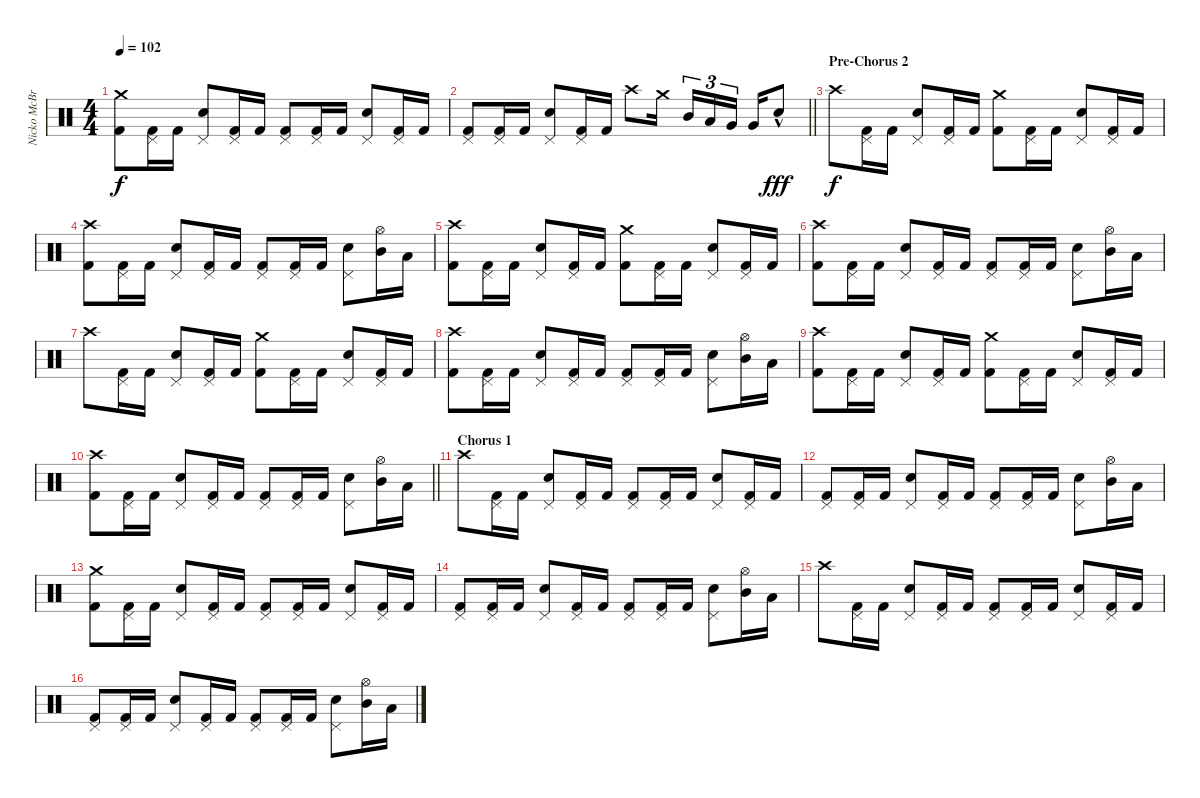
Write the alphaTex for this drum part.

\track ("Nicko McBrain" "Nicko McBr") {instrument percussion}
\staff {score}
\articulation defaults
\ts (4 4)
\tempo 102
\clef neutral
\ks c
("Crash medium (hit)" "Kick (hit) 2").8{dy f} ("Pedal Hi-Hat (hit)" "Kick (hit) 2").16 "Kick (hit) 2".16 ("Pedal Hi-Hat (hit)" "Electric Snare (hit)").8 ("Pedal Hi-Hat (hit)" "Kick (hit) 2").16 "Kick (hit) 2".16 ("Pedal Hi-Hat (hit)" "Kick (hit) 2").8 ("Pedal Hi-Hat (hit)" "Kick (hit) 2").16 "Kick (hit) 2".16 ("Pedal Hi-Hat (hit)" "Electric Snare (hit)").8 ("Pedal Hi-Hat (hit)" "Kick (hit) 2").16 "Kick (hit) 2".16 |
\barLineRight lightlight
("Pedal Hi-Hat (hit)" "Kick (hit) 2").8 ("Pedal Hi-Hat (hit)" "Kick (hit) 2").16 "Kick (hit) 2".16 ("Pedal Hi-Hat (hit)" "Electric Snare (hit)").8 ("Pedal Hi-Hat (hit)" "Kick (hit) 2").16 "Kick (hit) 2".16 "Crash high (hit)".8 "Crash medium (hit)".16{beam splitsecondary} "Mid Tom (hit)".16{tu (3 2)} "Low Tom (hit)".16{tu (3 2)} "Very Low Tom (hit)".16{tu (3 2) beam splitsecondary} "Very Low Tom (hit)".16 "Electric Snare (hit)"{hac}.8{dy fff} |
\section ("" "Pre-Chorus 2")
"Crash high (hit)".8{dy f} ("Pedal Hi-Hat (hit)" "Kick (hit) 2").16 "Kick (hit) 2".16 ("Pedal Hi-Hat (hit)" "Electric Snare (hit)").8 ("Pedal Hi-Hat (hit)" "Kick (hit) 2").16 "Kick (hit) 2".16 ("Crash medium (hit)" "Kick (hit) 2").8 ("Pedal Hi-Hat (hit)" "Kick (hit) 2").16 "Kick (hit) 2".16 ("Pedal Hi-Hat (hit)" "Electric Snare (hit)").8 ("Pedal Hi-Hat (hit)" "Kick (hit) 2").16 "Kick (hit) 2".16 |
("Crash high (hit)" "Kick (hit) 2").8 ("Pedal Hi-Hat (hit)" "Kick (hit) 2").16 "Kick (hit) 2".16 ("Pedal Hi-Hat (hit)" "Electric Snare (hit)").8 ("Pedal Hi-Hat (hit)" "Kick (hit) 2").16 "Kick (hit) 2".16 ("Pedal Hi-Hat (hit)" "Kick (hit) 2").8 ("Pedal Hi-Hat (hit)" "Kick (hit) 2").16 "Kick (hit) 2".16 ("Pedal Hi-Hat (hit)" "Electric Snare (hit)").8 ("Hi-Hat (open)" "Mid Tom (hit)").16 "Low Tom (hit)".16 |
("Crash high (hit)" "Kick (hit) 2").8 ("Pedal Hi-Hat (hit)" "Kick (hit) 2").16 "Kick (hit) 2".16 ("Pedal Hi-Hat (hit)" "Electric Snare (hit)").8 ("Pedal Hi-Hat (hit)" "Kick (hit) 2").16 "Kick (hit) 2".16 ("Crash medium (hit)" "Kick (hit) 2").8 ("Pedal Hi-Hat (hit)" "Kick (hit) 2").16 "Kick (hit) 2".16 ("Pedal Hi-Hat (hit)" "Electric Snare (hit)").8 ("Pedal Hi-Hat (hit)" "Kick (hit) 2").16 "Kick (hit) 2".16 |
("Crash high (hit)" "Kick (hit) 2").8 ("Pedal Hi-Hat (hit)" "Kick (hit) 2").16 "Kick (hit) 2".16 ("Pedal Hi-Hat (hit)" "Electric Snare (hit)").8 ("Pedal Hi-Hat (hit)" "Kick (hit) 2").16 "Kick (hit) 2".16 ("Pedal Hi-Hat (hit)" "Kick (hit) 2").8 ("Pedal Hi-Hat (hit)" "Kick (hit) 2").16 "Kick (hit) 2".16 ("Pedal Hi-Hat (hit)" "Electric Snare (hit)").8 ("Hi-Hat (open)" "Mid Tom (hit)").16 "Low Tom (hit)".16 |
"Crash high (hit)".8 ("Pedal Hi-Hat (hit)" "Kick (hit) 2").16 "Kick (hit) 2".16 ("Pedal Hi-Hat (hit)" "Electric Snare (hit)").8 ("Pedal Hi-Hat (hit)" "Kick (hit) 2").16 "Kick (hit) 2".16 ("Crash medium (hit)" "Kick (hit) 2").8 ("Pedal Hi-Hat (hit)" "Kick (hit) 2").16 "Kick (hit) 2".16 ("Pedal Hi-Hat (hit)" "Electric Snare (hit)").8 ("Pedal Hi-Hat (hit)" "Kick (hit) 2").16 "Kick (hit) 2".16 |
("Crash high (hit)" "Kick (hit) 2").8 ("Pedal Hi-Hat (hit)" "Kick (hit) 2").16 "Kick (hit) 2".16 ("Pedal Hi-Hat (hit)" "Electric Snare (hit)").8 ("Pedal Hi-Hat (hit)" "Kick (hit) 2").16 "Kick (hit) 2".16 ("Pedal Hi-Hat (hit)" "Kick (hit) 2").8 ("Pedal Hi-Hat (hit)" "Kick (hit) 2").16 "Kick (hit) 2".16 ("Pedal Hi-Hat (hit)" "Electric Snare (hit)").8 ("Hi-Hat (open)" "Mid Tom (hit)").16 "Low Tom (hit)".16 |
("Crash high (hit)" "Kick (hit) 2").8 ("Pedal Hi-Hat (hit)" "Kick (hit) 2").16 "Kick (hit) 2".16 ("Pedal Hi-Hat (hit)" "Electric Snare (hit)").8 ("Pedal Hi-Hat (hit)" "Kick (hit) 2").16 "Kick (hit) 2".16 ("Crash medium (hit)" "Kick (hit) 2").8 ("Pedal Hi-Hat (hit)" "Kick (hit) 2").16 "Kick (hit) 2".16 ("Pedal Hi-Hat (hit)" "Electric Snare (hit)").8 ("Pedal Hi-Hat (hit)" "Kick (hit) 2").16 "Kick (hit) 2".16 |
\barLineRight lightlight
("Crash high (hit)" "Kick (hit) 2").8 ("Pedal Hi-Hat (hit)" "Kick (hit) 2").16 "Kick (hit) 2".16 ("Pedal Hi-Hat (hit)" "Electric Snare (hit)").8 ("Pedal Hi-Hat (hit)" "Kick (hit) 2").16 "Kick (hit) 2".16 ("Pedal Hi-Hat (hit)" "Kick (hit) 2").8 ("Pedal Hi-Hat (hit)" "Kick (hit) 2").16 "Kick (hit) 2".16 ("Pedal Hi-Hat (hit)" "Electric Snare (hit)").8 ("Hi-Hat (open)" "Mid Tom (hit)").16 "Low Tom (hit)".16 |
\section ("" "Chorus 1")
"Crash high (hit)".8 ("Pedal Hi-Hat (hit)" "Kick (hit) 2").16 "Kick (hit) 2".16 ("Pedal Hi-Hat (hit)" "Electric Snare (hit)").8 ("Pedal Hi-Hat (hit)" "Kick (hit) 2").16 "Kick (hit) 2".16 ("Pedal Hi-Hat (hit)" "Kick (hit) 2").8 ("Pedal Hi-Hat (hit)" "Kick (hit) 2").16 "Kick (hit) 2".16 ("Pedal Hi-Hat (hit)" "Electric Snare (hit)").8 ("Pedal Hi-Hat (hit)" "Kick (hit) 2").16 "Kick (hit) 2".16 |
("Pedal Hi-Hat (hit)" "Kick (hit) 2").8 ("Pedal Hi-Hat (hit)" "Kick (hit) 2").16 "Kick (hit) 2".16 ("Pedal Hi-Hat (hit)" "Electric Snare (hit)").8 ("Pedal Hi-Hat (hit)" "Kick (hit) 2").16 "Kick (hit) 2".16 ("Pedal Hi-Hat (hit)" "Kick (hit) 2").8 ("Pedal Hi-Hat (hit)" "Kick (hit) 2").16 "Kick (hit) 2".16 ("Pedal Hi-Hat (hit)" "Electric Snare (hit)").8 ("Hi-Hat (open)" "Mid Tom (hit)").16 "Low Tom (hit)".16 |
("Crash medium (hit)" "Kick (hit) 2").8 ("Pedal Hi-Hat (hit)" "Kick (hit) 2").16 "Kick (hit) 2".16 ("Pedal Hi-Hat (hit)" "Electric Snare (hit)").8 ("Pedal Hi-Hat (hit)" "Kick (hit) 2").16 "Kick (hit) 2".16 ("Pedal Hi-Hat (hit)" "Kick (hit) 2").8 ("Pedal Hi-Hat (hit)" "Kick (hit) 2").16 "Kick (hit) 2".16 ("Pedal Hi-Hat (hit)" "Electric Snare (hit)").8 ("Pedal Hi-Hat (hit)" "Kick (hit) 2").16 "Kick (hit) 2".16 |
("Pedal Hi-Hat (hit)" "Kick (hit) 2").8 ("Pedal Hi-Hat (hit)" "Kick (hit) 2").16 "Kick (hit) 2".16 ("Pedal Hi-Hat (hit)" "Electric Snare (hit)").8 ("Pedal Hi-Hat (hit)" "Kick (hit) 2").16 "Kick (hit) 2".16 ("Pedal Hi-Hat (hit)" "Kick (hit) 2").8 ("Pedal Hi-Hat (hit)" "Kick (hit) 2").16 "Kick (hit) 2".16 ("Pedal Hi-Hat (hit)" "Electric Snare (hit)").8 ("Hi-Hat (open)" "Mid Tom (hit)").16 "Low Tom (hit)".16 |
"Crash high (hit)".8 ("Pedal Hi-Hat (hit)" "Kick (hit) 2").16 "Kick (hit) 2".16 ("Pedal Hi-Hat (hit)" "Electric Snare (hit)").8 ("Pedal Hi-Hat (hit)" "Kick (hit) 2").16 "Kick (hit) 2".16 ("Pedal Hi-Hat (hit)" "Kick (hit) 2").8 ("Pedal Hi-Hat (hit)" "Kick (hit) 2").16 "Kick (hit) 2".16 ("Pedal Hi-Hat (hit)" "Electric Snare (hit)").8 ("Pedal Hi-Hat (hit)" "Kick (hit) 2").16 "Kick (hit) 2".16 |
("Pedal Hi-Hat (hit)" "Kick (hit) 2").8 ("Pedal Hi-Hat (hit)" "Kick (hit) 2").16 "Kick (hit) 2".16 ("Pedal Hi-Hat (hit)" "Electric Snare (hit)").8 ("Pedal Hi-Hat (hit)" "Kick (hit) 2").16 "Kick (hit) 2".16 ("Pedal Hi-Hat (hit)" "Kick (hit) 2").8 ("Pedal Hi-Hat (hit)" "Kick (hit) 2").16 "Kick (hit) 2".16 ("Pedal Hi-Hat (hit)" "Electric Snare (hit)").8 ("Hi-Hat (open)" "Mid Tom (hit)").16 "Low Tom (hit)".16
